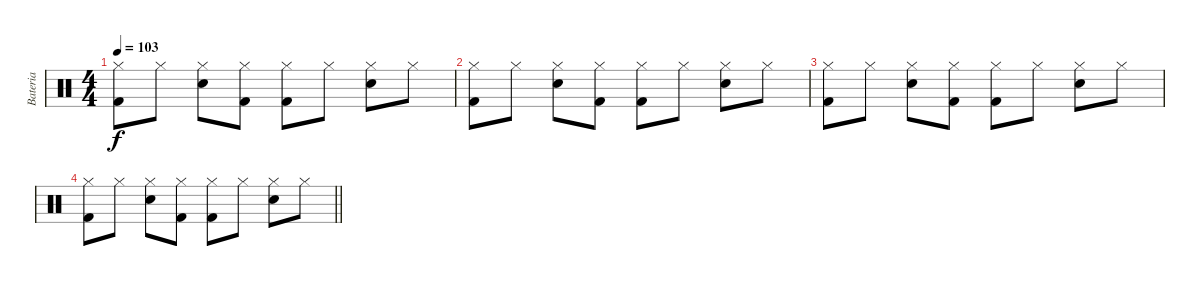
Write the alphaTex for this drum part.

\track ("Bateria" "Bateria") {instrument percussion}
\staff {score}
\articulation defaults
\ts (4 4)
\tempo 103
\clef neutral
\ks c
("Hi-Hat (closed)" "Kick (hit) 2").8{dy f} "Hi-Hat (closed)".8 ("Hi-Hat (closed)" "Snare (hit) 2").8 ("Hi-Hat (closed)" "Kick (hit) 2").8 ("Hi-Hat (closed)" "Kick (hit) 2").8 "Hi-Hat (closed)".8 ("Hi-Hat (closed)" "Snare (hit) 2").8 "Hi-Hat (closed)".8 |
("Hi-Hat (closed)" "Kick (hit) 2").8 "Hi-Hat (closed)".8 ("Hi-Hat (closed)" "Snare (hit) 2").8 ("Hi-Hat (closed)" "Kick (hit) 2").8 ("Hi-Hat (closed)" "Kick (hit) 2").8 "Hi-Hat (closed)".8 ("Hi-Hat (closed)" "Snare (hit) 2").8 "Hi-Hat (closed)".8 |
("Hi-Hat (closed)" "Kick (hit) 2").8 "Hi-Hat (closed)".8 ("Hi-Hat (closed)" "Snare (hit) 2").8 ("Hi-Hat (closed)" "Kick (hit) 2").8 ("Hi-Hat (closed)" "Kick (hit) 2").8 "Hi-Hat (closed)".8 ("Hi-Hat (closed)" "Snare (hit) 2").8 "Hi-Hat (closed)".8 |
\barLineRight lightlight
("Hi-Hat (closed)" "Kick (hit) 2").8 "Hi-Hat (closed)".8 ("Hi-Hat (closed)" "Snare (hit) 2").8 ("Hi-Hat (closed)" "Kick (hit) 2").8 ("Hi-Hat (closed)" "Kick (hit) 2").8 "Hi-Hat (closed)".8 ("Hi-Hat (closed)" "Snare (hit) 2").8 "Hi-Hat (closed)".8
